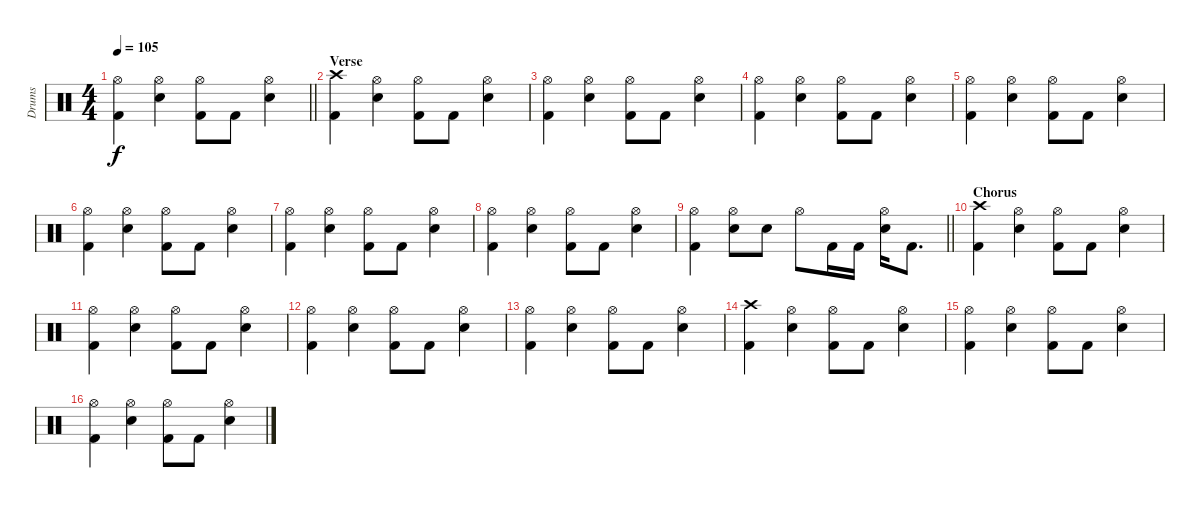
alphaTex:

\track ("Drums" "Drums") {instrument percussion}
\staff {score}
\articulation defaults
\ts (4 4)
\tempo 105
\clef neutral
\barLineRight lightlight
\ks c
("Hi-Hat (open)" "Kick (hit) 2").4{dy f} ("Electric Snare (hit)" "Hi-Hat (open)").4 ("Hi-Hat (open)" "Kick (hit) 2").8 "Kick (hit) 2".8 ("Hi-Hat (open)" "Electric Snare (hit)").4 |
\section ("" "Verse")
("Crash high (hit)" "Kick (hit) 2").4 ("Electric Snare (hit)" "Hi-Hat (open)").4 ("Hi-Hat (open)" "Kick (hit) 2").8 "Kick (hit) 2".8 ("Hi-Hat (open)" "Electric Snare (hit)").4 |
("Hi-Hat (open)" "Kick (hit) 2").4 ("Electric Snare (hit)" "Hi-Hat (open)").4 ("Hi-Hat (open)" "Kick (hit) 2").8 "Kick (hit) 2".8 ("Hi-Hat (open)" "Electric Snare (hit)").4 |
("Hi-Hat (open)" "Kick (hit) 2").4 ("Electric Snare (hit)" "Hi-Hat (open)").4 ("Hi-Hat (open)" "Kick (hit) 2").8 "Kick (hit) 2".8 ("Hi-Hat (open)" "Electric Snare (hit)").4 |
("Hi-Hat (open)" "Kick (hit) 2").4 ("Electric Snare (hit)" "Hi-Hat (open)").4 ("Hi-Hat (open)" "Kick (hit) 2").8 "Kick (hit) 2".8 ("Hi-Hat (open)" "Electric Snare (hit)").4 |
("Hi-Hat (open)" "Kick (hit) 2").4 ("Electric Snare (hit)" "Hi-Hat (open)").4 ("Hi-Hat (open)" "Kick (hit) 2").8 "Kick (hit) 2".8 ("Hi-Hat (open)" "Electric Snare (hit)").4 |
("Hi-Hat (open)" "Kick (hit) 2").4 ("Electric Snare (hit)" "Hi-Hat (open)").4 ("Hi-Hat (open)" "Kick (hit) 2").8 "Kick (hit) 2".8 ("Hi-Hat (open)" "Electric Snare (hit)").4 |
("Hi-Hat (open)" "Kick (hit) 2").4 ("Electric Snare (hit)" "Hi-Hat (open)").4 ("Hi-Hat (open)" "Kick (hit) 2").8 "Kick (hit) 2".8 ("Hi-Hat (open)" "Electric Snare (hit)").4 |
\barLineRight lightlight
("Hi-Hat (open)" "Kick (hit) 2").4 ("Electric Snare (hit)" "Hi-Hat (open)").8 "Electric Snare (hit)".8 "Hi-Hat (open)".8 "Kick (hit) 2".16 "Kick (hit) 2".16 ("Electric Snare (hit)" "Hi-Hat (open)").16 "Kick (hit) 2".8{d} |
\section ("" "Chorus")
("Crash high (hit)" "Kick (hit) 2").4 ("Electric Snare (hit)" "Hi-Hat (open)").4 ("Hi-Hat (open)" "Kick (hit) 2").8 "Kick (hit) 2".8 ("Hi-Hat (open)" "Electric Snare (hit)").4 |
("Hi-Hat (open)" "Kick (hit) 2").4 ("Electric Snare (hit)" "Hi-Hat (open)").4 ("Hi-Hat (open)" "Kick (hit) 2").8 "Kick (hit) 2".8 ("Hi-Hat (open)" "Electric Snare (hit)").4 |
("Hi-Hat (open)" "Kick (hit) 2").4 ("Electric Snare (hit)" "Hi-Hat (open)").4 ("Hi-Hat (open)" "Kick (hit) 2").8 "Kick (hit) 2".8 ("Hi-Hat (open)" "Electric Snare (hit)").4 |
("Hi-Hat (open)" "Kick (hit) 2").4 ("Electric Snare (hit)" "Hi-Hat (open)").4 ("Hi-Hat (open)" "Kick (hit) 2").8 "Kick (hit) 2".8 ("Hi-Hat (open)" "Electric Snare (hit)").4 |
("Crash high (hit)" "Kick (hit) 2").4 ("Electric Snare (hit)" "Hi-Hat (open)").4 ("Hi-Hat (open)" "Kick (hit) 2").8 "Kick (hit) 2".8 ("Hi-Hat (open)" "Electric Snare (hit)").4 |
("Hi-Hat (open)" "Kick (hit) 2").4 ("Electric Snare (hit)" "Hi-Hat (open)").4 ("Hi-Hat (open)" "Kick (hit) 2").8 "Kick (hit) 2".8 ("Hi-Hat (open)" "Electric Snare (hit)").4 |
("Hi-Hat (open)" "Kick (hit) 2").4 ("Electric Snare (hit)" "Hi-Hat (open)").4 ("Hi-Hat (open)" "Kick (hit) 2").8 "Kick (hit) 2".8 ("Hi-Hat (open)" "Electric Snare (hit)").4
